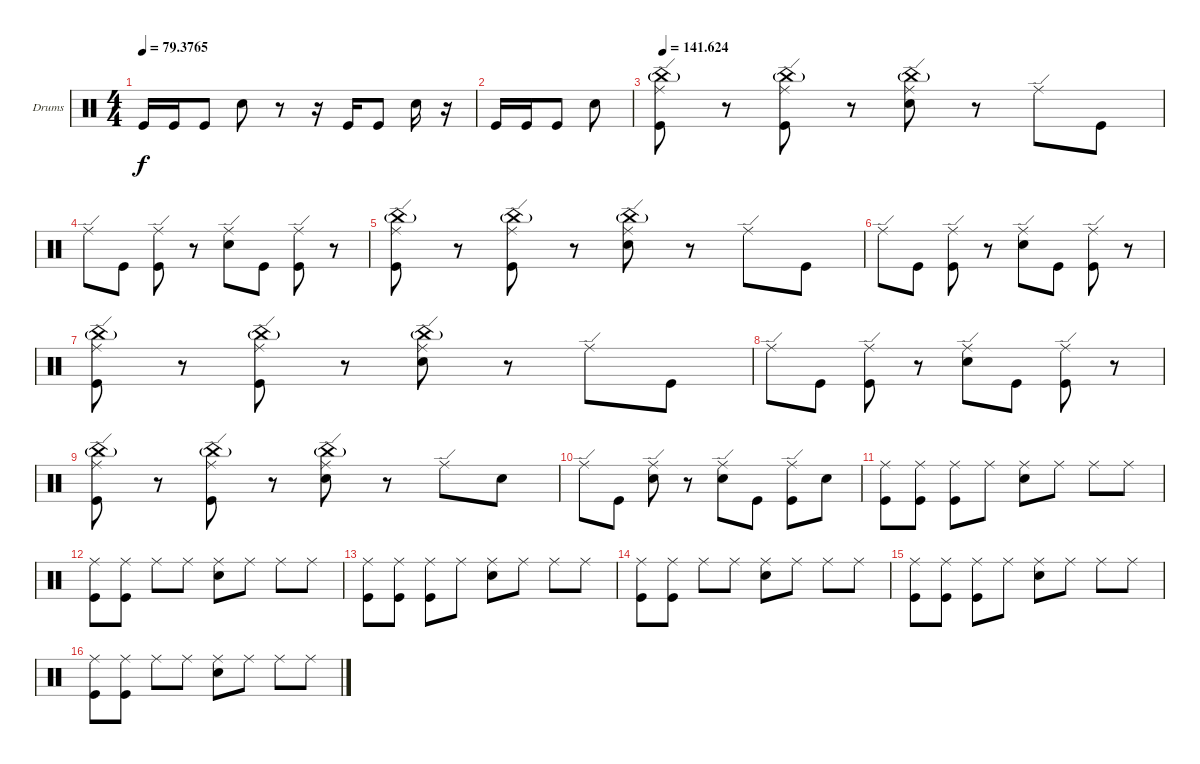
\defaultSystemsLayout 4
\bracketExtendMode groupsimilarinstruments
\firstSystemTrackNameOrientation horizontal
\otherSystemsTrackNameOrientation horizontal
\track ("Drumkit" "Drums") {instrument percussion}
\staff {score}
\articulation defaults
\ts (4 4)
\tempo
79.3765
\accidentals auto
\clef neutral
\ottava regular
\simile none
\ks c "Kick (hit)".16{dy f} "Kick (hit)".16 "Kick (hit)".8 "Snare (hit) 2".8
r.8 r.16 "Kick (hit)".16 "Kick (hit)".8 "Snare (hit) 2".16 r.16 |
"Kick (hit)".16 "Kick (hit)".16 "Kick (hit)".8 "Snare (hit) 2".8 |
\tempo
141.624 ("Kick (hit)" "Ride (edge)" "China (hit)"{g}).8 r.8 ("Kick (hit)" "Ride (edge)" "China (hit)"{g}).8 r.8 ("Snare (hit) 2" "Ride (edge)" "China (hit)"{g}).8 r.8 "Ride (edge)".8 "Kick (hit)".8 |
"Ride (edge)".8 "Kick (hit)".8 ("Ride (edge)" "Kick (hit)").8 r.8 ("Ride (edge)" "Snare (hit) 2").8 "Kick (hit)".8 ("Ride (edge)" "Kick (hit)").8 r.8 |
("Kick (hit)" "Ride (edge)" "China (hit)"{g}).8 r.8 ("Kick (hit)" "Ride (edge)" "China (hit)"{g}).8 r.8 ("Snare (hit) 2" "Ride (edge)" "China (hit)"{g}).8 r.8 "Ride (edge)".8 "Kick (hit)".8 |
"Ride (edge)".8 "Kick (hit)".8 ("Ride (edge)" "Kick (hit)").8 r.8 ("Ride (edge)" "Snare (hit) 2").8 "Kick (hit)".8 ("Ride (edge)" "Kick (hit)").8 r.8 |
("Kick (hit)" "Ride (edge)" "China (hit)"{g}).8 r.8 ("Kick (hit)" "Ride (edge)" "China (hit)"{g}).8 r.8 ("Snare (hit) 2" "Ride (edge)" "China (hit)"{g}).8 r.8 "Ride (edge)".8 "Kick (hit)".8 |
"Ride (edge)".8 "Kick (hit)".8 ("Ride (edge)" "Kick (hit)").8 r.8 ("Ride (edge)" "Snare (hit) 2").8 "Kick (hit)".8 ("Ride (edge)" "Kick (hit)").8 r.8 |
("Kick (hit)" "Ride (edge)" "China (hit)"{g}).8 r.8 ("Kick (hit)" "Ride (edge)" "China (hit)"{g}).8 r.8 ("Snare (hit) 2" "Ride (edge)" "China (hit)"{g}).8 r.8 "Ride (edge)".8 "Snare (hit) 2".8 |
"Ride (edge)".8 "Kick (hit)".8 ("Ride (edge)" "Snare (hit) 2").8 r.8 ("Ride (edge)" "Snare (hit) 2").8 "Kick (hit)".8 ("Ride (edge)" "Kick (hit)").8 "Snare (hit) 2".8 |
("Ride (middle)" "Kick (hit)").8 ("Ride (middle)" "Kick (hit)").8 ("Ride (middle)" "Kick (hit)").8 "Ride (middle)".8 ("Ride (middle)" "Snare (hit) 2").8 "Ride (middle)".8 "Ride (middle)".8 "Ride (middle)".8 |
("Ride (middle)" "Kick (hit)").8 ("Ride (middle)" "Kick (hit)").8 "Ride (middle)".8 "Ride (middle)".8 ("Ride (middle)" "Snare (hit) 2").8 "Ride (middle)".8 "Ride (middle)".8 "Ride (middle)".8 |
("Ride (middle)" "Kick (hit)").8 ("Ride (middle)" "Kick (hit)").8 ("Ride (middle)" "Kick (hit)").8 "Ride (middle)".8 ("Ride (middle)" "Snare (hit) 2").8 "Ride (middle)".8 "Ride (middle)".8 "Ride (middle)".8 |
("Ride (middle)" "Kick (hit)").8 ("Ride (middle)" "Kick (hit)").8 "Ride (middle)".8 "Ride (middle)".8 ("Ride (middle)" "Snare (hit) 2").8 "Ride (middle)".8 "Ride (middle)".8 "Ride (middle)".8 |
("Ride (middle)" "Kick (hit)").8 ("Ride (middle)" "Kick (hit)").8 ("Ride (middle)" "Kick (hit)").8 "Ride (middle)".8 ("Ride (middle)" "Snare (hit) 2").8 "Ride (middle)".8 "Ride (middle)".8 "Ride (middle)".8 |
("Ride (middle)" "Kick (hit)").8 ("Ride (middle)" "Kick (hit)").8 "Ride (middle)".8 "Ride (middle)".8 ("Ride (middle)" "Snare (hit) 2").8 "Ride (middle)".8 "Ride (middle)".8 "Ride (middle)".8
